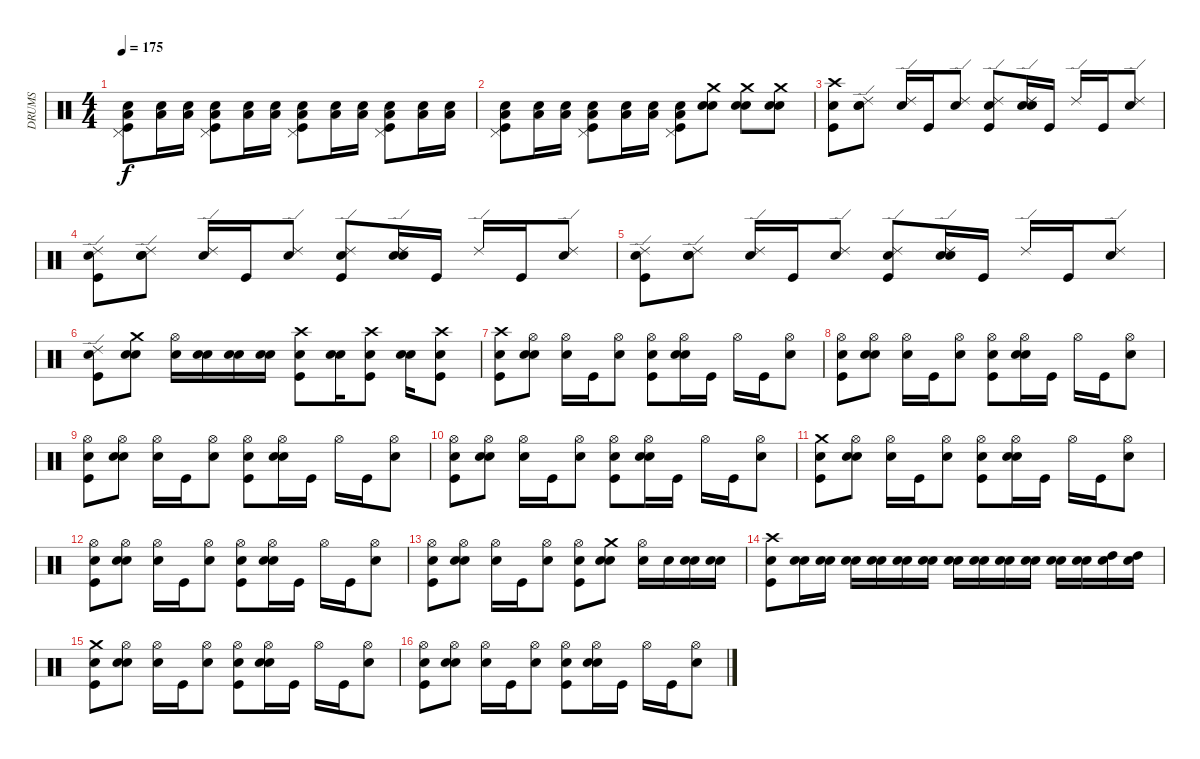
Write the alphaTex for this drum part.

\track ("DRUMS" "DRUMS") {instrument percussion}
\staff {score}
\articulation defaults
\ts (4 4)
\tempo 175
\clef neutral
\ks c
("Snare (hit)" "Pedal Hi-Hat (hit)" "Kick (hit)" "Low Tom (hit)").8{dy f} ("Snare (hit)" "Low Tom (hit)").16 ("Snare (hit)" "Low Tom (hit)").16 ("Snare (hit)" "Pedal Hi-Hat (hit)" "Kick (hit)" "Low Tom (hit)").8 ("Snare (hit)" "Low Tom (hit)").16 ("Snare (hit)" "Low Tom (hit)").16 ("Snare (hit)" "Pedal Hi-Hat (hit)" "Kick (hit)" "Low Tom (hit)").8 ("Snare (hit)" "Low Tom (hit)").16 ("Snare (hit)" "Low Tom (hit)").16 ("Snare (hit)" "Pedal Hi-Hat (hit)" "Kick (hit)" "Low Tom (hit)").8 ("Snare (hit)" "Low Tom (hit)").16 ("Snare (hit)" "Low Tom (hit)").16 |
("Snare (hit)" "Pedal Hi-Hat (hit)" "Kick (hit)" "Low Tom (hit)").8 ("Snare (hit)" "Low Tom (hit)").16 ("Snare (hit)" "Low Tom (hit)").16 ("Snare (hit)" "Pedal Hi-Hat (hit)" "Kick (hit)" "Low Tom (hit)").8 ("Snare (hit)" "Low Tom (hit)").16 ("Snare (hit)" "Low Tom (hit)").16 ("Snare (hit)" "Pedal Hi-Hat (hit)" "Kick (hit)" "Low Tom (hit)").8 ("Snare (hit)" "Crash medium (hit)" "Snare (hit) 2").8 ("Snare (hit)" "Crash medium (hit)" "Snare (hit) 2").8 ("Snare (hit)" "Crash medium (hit)" "Snare (hit) 2").8 |
("Snare (hit)" "Kick (hit)" "Crash high (hit)").8 ("Snare (hit)" "Snare (hit) 2" "Ride (edge) 2").8 ("Snare (hit)" "Ride (edge) 2").16 "Kick (hit)".16 ("Snare (hit) 2" "Ride (edge) 2").8 ("Snare (hit)" "Kick (hit)" "Ride (edge) 2").8 ("Snare (hit)" "Snare (hit) 2" "Ride (edge) 2").16 "Kick (hit)".16 "Ride (edge) 2".16 "Kick (hit)".16 ("Snare (hit) 2" "Ride (edge) 2").8 |
("Snare (hit)" "Ride (edge) 2" "Kick (hit)").8 ("Snare (hit)" "Ride (edge) 2" "Snare (hit) 2").8 ("Snare (hit)" "Ride (edge) 2").16 "Kick (hit)".16 ("Ride (edge) 2" "Snare (hit) 2").8 ("Snare (hit)" "Ride (edge) 2" "Kick (hit)").8 ("Snare (hit)" "Ride (edge) 2" "Snare (hit) 2").16 "Kick (hit)".16 "Ride (edge) 2".16 "Kick (hit)".16 ("Ride (edge) 2" "Snare (hit) 2").8 |
("Snare (hit)" "Ride (edge) 2" "Kick (hit)").8 ("Snare (hit)" "Ride (edge) 2" "Snare (hit) 2").8 ("Snare (hit)" "Ride (edge) 2").16 "Kick (hit)".16 ("Ride (edge) 2" "Snare (hit) 2").8 ("Snare (hit)" "Ride (edge) 2" "Kick (hit)").8 ("Snare (hit)" "Ride (edge) 2" "Snare (hit) 2").16 "Kick (hit)".16 "Ride (edge) 2".16 "Kick (hit)".16 ("Ride (edge) 2" "Snare (hit) 2").8 |
("Snare (hit)" "Ride (edge) 2" "Kick (hit)").8 ("Snare (hit)" "Crash medium (hit)" "Snare (hit) 2").8 ("Snare (hit)" "Hi-Hat (open)").16 ("Snare (hit)" "Snare (hit) 2").16 ("Snare (hit)" "Snare (hit) 2").16 ("Snare (hit)" "Snare (hit) 2").16 ("Snare (hit)" "Crash high (hit)" "Kick (hit)").8 ("Snare (hit)" "Snare (hit) 2").16 ("Snare (hit)" "Crash high (hit)" "Kick (hit)").8 ("Snare (hit)" "Snare (hit) 2").16 ("Snare (hit)" "Crash high (hit)" "Kick (hit)").8 |
("Snare (hit)" "Crash high (hit)" "Kick (hit)").8 ("Snare (hit)" "Hi-Hat (open)" "Snare (hit) 2").8 ("Snare (hit)" "Hi-Hat (open)").16 "Kick (hit)".16 ("Hi-Hat (open)" "Snare (hit) 2").8 ("Snare (hit)" "Hi-Hat (open)" "Kick (hit)").8 ("Snare (hit)" "Hi-Hat (open)" "Snare (hit) 2").16 "Kick (hit)".16 "Hi-Hat (open)".16 "Kick (hit)".16 ("Hi-Hat (open)" "Snare (hit) 2").8 |
("Snare (hit)" "Hi-Hat (open)" "Kick (hit)").8 ("Snare (hit)" "Hi-Hat (open)" "Snare (hit) 2").8 ("Snare (hit)" "Hi-Hat (open)").16 "Kick (hit)".16 ("Hi-Hat (open)" "Snare (hit) 2").8 ("Snare (hit)" "Hi-Hat (open)" "Kick (hit)").8 ("Snare (hit)" "Hi-Hat (open)" "Snare (hit) 2").16 "Kick (hit)".16 "Hi-Hat (open)".16 "Kick (hit)".16 ("Hi-Hat (open)" "Snare (hit) 2").8 |
("Snare (hit)" "Hi-Hat (open)" "Kick (hit)").8 ("Snare (hit)" "Hi-Hat (open)" "Snare (hit) 2").8 ("Snare (hit)" "Hi-Hat (open)").16 "Kick (hit)".16 ("Hi-Hat (open)" "Snare (hit) 2").8 ("Snare (hit)" "Hi-Hat (open)" "Kick (hit)").8 ("Snare (hit)" "Hi-Hat (open)" "Snare (hit) 2").16 "Kick (hit)".16 "Hi-Hat (open)".16 "Kick (hit)".16 ("Hi-Hat (open)" "Snare (hit) 2").8 |
("Snare (hit)" "Hi-Hat (open)" "Kick (hit)").8 ("Snare (hit)" "Hi-Hat (open)" "Snare (hit) 2").8 ("Snare (hit)" "Hi-Hat (open)").16 "Kick (hit)".16 ("Hi-Hat (open)" "Snare (hit) 2").8 ("Snare (hit)" "Hi-Hat (open)" "Kick (hit)").8 ("Snare (hit)" "Hi-Hat (open)" "Snare (hit) 2").16 "Kick (hit)".16 "Hi-Hat (open)".16 "Kick (hit)".16 ("Hi-Hat (open)" "Snare (hit) 2").8 |
("Snare (hit)" "Kick (hit)" "Crash medium (hit)").8 ("Snare (hit)" "Snare (hit) 2" "Hi-Hat (open)").8 ("Snare (hit)" "Hi-Hat (open)").16 "Kick (hit)".16 ("Snare (hit) 2" "Hi-Hat (open)").8 ("Snare (hit)" "Kick (hit)" "Hi-Hat (open)").8 ("Snare (hit)" "Snare (hit) 2" "Hi-Hat (open)").16 "Kick (hit)".16 "Hi-Hat (open)".16 "Kick (hit)".16 ("Snare (hit) 2" "Hi-Hat (open)").8 |
("Snare (hit)" "Kick (hit)" "Hi-Hat (open)").8 ("Snare (hit)" "Snare (hit) 2" "Hi-Hat (open)").8 ("Snare (hit)" "Hi-Hat (open)").16 "Kick (hit)".16 ("Snare (hit) 2" "Hi-Hat (open)").8 ("Snare (hit)" "Kick (hit)" "Hi-Hat (open)").8 ("Snare (hit)" "Snare (hit) 2" "Hi-Hat (open)").16 "Kick (hit)".16 "Hi-Hat (open)".16 "Kick (hit)".16 ("Snare (hit) 2" "Hi-Hat (open)").8 |
("Snare (hit)" "Hi-Hat (open)" "Kick (hit)").8 ("Snare (hit)" "Hi-Hat (open)" "Snare (hit) 2").8 ("Snare (hit)" "Hi-Hat (open)").16 "Kick (hit)".16 ("Hi-Hat (open)" "Snare (hit) 2").8 ("Snare (hit)" "Hi-Hat (open)" "Kick (hit)").8 ("Snare (hit)" "Snare (hit) 2" "Crash medium (hit)").8 ("Snare (hit)" "Hi-Hat (open)").16 "Snare (hit) 2".16 ("Snare (hit)" "Snare (hit) 2").16 ("Snare (hit)" "Snare (hit) 2").16 |
("Snare (hit)" "Crash high (hit)" "Kick (hit)").8 ("Snare (hit)" "Snare (hit) 2").16 ("Snare (hit)" "Snare (hit) 2").16 ("Snare (hit)" "Snare (hit) 2").16 ("Snare (hit)" "Snare (hit) 2").16 ("Snare (hit)" "Snare (hit) 2").16 ("Snare (hit)" "Snare (hit) 2").16 ("Snare (hit)" "Snare (hit) 2").16 ("Snare (hit)" "Snare (hit) 2").16 ("Snare (hit)" "Snare (hit) 2").16 ("Snare (hit)" "Snare (hit) 2").16 ("Snare (hit)" "Snare (hit) 2").16 ("Snare (hit)" "Snare (hit) 2").16 ("Snare (hit)" "High Tom (hit)").16 ("Snare (hit)" "High Tom (hit)").16 |
("Snare (hit)" "Crash medium (hit)" "Kick (hit)").8 ("Snare (hit)" "Hi-Hat (open)" "Snare (hit) 2").8 ("Snare (hit)" "Hi-Hat (open)").16 "Kick (hit)".16 ("Hi-Hat (open)" "Snare (hit) 2").8 ("Snare (hit)" "Hi-Hat (open)" "Kick (hit)").8 ("Snare (hit)" "Hi-Hat (open)" "Snare (hit) 2").16 "Kick (hit)".16 "Hi-Hat (open)".16 "Kick (hit)".16 ("Hi-Hat (open)" "Snare (hit) 2").8 |
("Snare (hit)" "Kick (hit)" "Hi-Hat (open)").8 ("Snare (hit)" "Snare (hit) 2" "Hi-Hat (open)").8 ("Snare (hit)" "Hi-Hat (open)").16 "Kick (hit)".16 ("Snare (hit) 2" "Hi-Hat (open)").8 ("Snare (hit)" "Kick (hit)" "Hi-Hat (open)").8 ("Snare (hit)" "Snare (hit) 2" "Hi-Hat (open)").16 "Kick (hit)".16 "Hi-Hat (open)".16 "Kick (hit)".16 ("Snare (hit) 2" "Hi-Hat (open)").8
